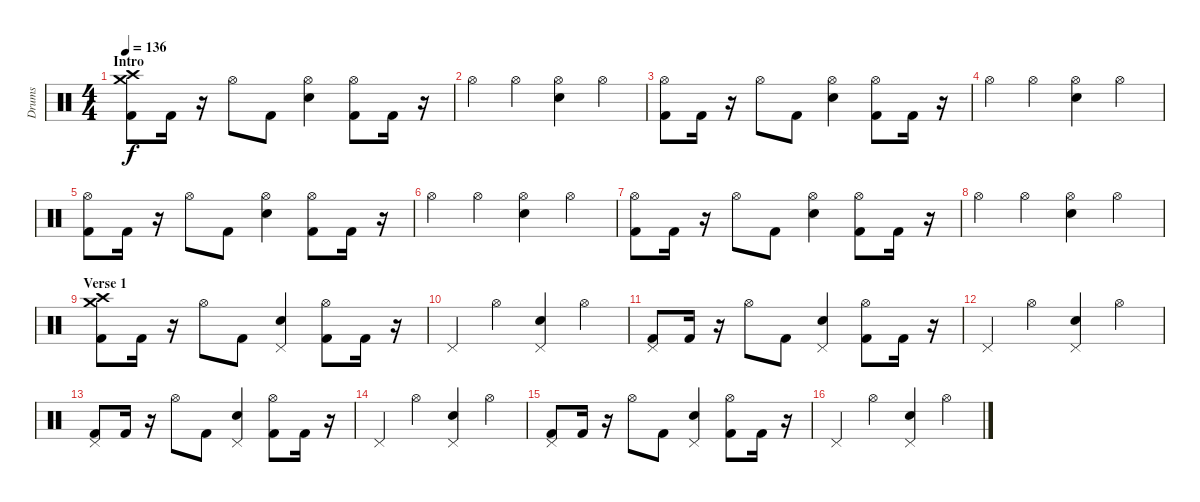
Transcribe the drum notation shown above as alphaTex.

\track ("Drums" "Drums") {instrument percussion}
\staff {score}
\articulation defaults
\ts (4 4)
\section ("" "Intro")
\tempo 136
\clef neutral
\ks c
("Crash high (hit)" "Crash medium (hit)" "Kick (hit) 2").8{dy f} "Kick (hit) 2".16 r.16 "Hi-Hat (open)".8 "Kick (hit) 2".8 ("Hi-Hat (open)" "Electric Snare (hit)").4 ("Hi-Hat (open)" "Kick (hit) 2").8 "Kick (hit) 2".16 r.16 |
"Hi-Hat (open)".4 "Hi-Hat (open)".4 ("Hi-Hat (open)" "Electric Snare (hit)").4 "Hi-Hat (open)".4 |
("Hi-Hat (open)" "Kick (hit) 2").8 "Kick (hit) 2".16 r.16 "Hi-Hat (open)".8 "Kick (hit) 2".8 ("Hi-Hat (open)" "Electric Snare (hit)").4 ("Hi-Hat (open)" "Kick (hit) 2").8 "Kick (hit) 2".16 r.16 |
"Hi-Hat (open)".4 "Hi-Hat (open)".4 ("Hi-Hat (open)" "Electric Snare (hit)").4 "Hi-Hat (open)".4 |
("Hi-Hat (open)" "Kick (hit) 2").8 "Kick (hit) 2".16 r.16 "Hi-Hat (open)".8 "Kick (hit) 2".8 ("Hi-Hat (open)" "Electric Snare (hit)").4 ("Hi-Hat (open)" "Kick (hit) 2").8 "Kick (hit) 2".16 r.16 |
"Hi-Hat (open)".4 "Hi-Hat (open)".4 ("Hi-Hat (open)" "Electric Snare (hit)").4 "Hi-Hat (open)".4 |
("Hi-Hat (open)" "Kick (hit) 2").8 "Kick (hit) 2".16 r.16 "Hi-Hat (open)".8 "Kick (hit) 2".8 ("Hi-Hat (open)" "Electric Snare (hit)").4 ("Hi-Hat (open)" "Kick (hit) 2").8 "Kick (hit) 2".16 r.16 |
"Hi-Hat (open)".4 "Hi-Hat (open)".4 ("Hi-Hat (open)" "Electric Snare (hit)").4 "Hi-Hat (open)".4 |
\section ("" "Verse 1")
("Crash high (hit)" "Crash medium (hit)" "Kick (hit) 2").8 "Kick (hit) 2".16 r.16 "Hi-Hat (open)".8 "Kick (hit) 2".8 ("Pedal Hi-Hat (hit)" "Electric Snare (hit)").4 ("Hi-Hat (open)" "Kick (hit) 2").8 "Kick (hit) 2".16 r.16 |
"Pedal Hi-Hat (hit)".4 "Hi-Hat (open)".4 ("Pedal Hi-Hat (hit)" "Electric Snare (hit)").4 "Hi-Hat (open)".4 |
("Pedal Hi-Hat (hit)" "Kick (hit) 2").8 "Kick (hit) 2".16 r.16 "Hi-Hat (open)".8 "Kick (hit) 2".8 ("Pedal Hi-Hat (hit)" "Electric Snare (hit)").4 ("Hi-Hat (open)" "Kick (hit) 2").8 "Kick (hit) 2".16 r.16 |
"Pedal Hi-Hat (hit)".4 "Hi-Hat (open)".4 ("Pedal Hi-Hat (hit)" "Electric Snare (hit)").4 "Hi-Hat (open)".4 |
("Pedal Hi-Hat (hit)" "Kick (hit) 2").8 "Kick (hit) 2".16 r.16 "Hi-Hat (open)".8 "Kick (hit) 2".8 ("Pedal Hi-Hat (hit)" "Electric Snare (hit)").4 ("Hi-Hat (open)" "Kick (hit) 2").8 "Kick (hit) 2".16 r.16 |
"Pedal Hi-Hat (hit)".4 "Hi-Hat (open)".4 ("Pedal Hi-Hat (hit)" "Electric Snare (hit)").4 "Hi-Hat (open)".4 |
("Pedal Hi-Hat (hit)" "Kick (hit) 2").8 "Kick (hit) 2".16 r.16 "Hi-Hat (open)".8 "Kick (hit) 2".8 ("Pedal Hi-Hat (hit)" "Electric Snare (hit)").4 ("Hi-Hat (open)" "Kick (hit) 2").8 "Kick (hit) 2".16 r.16 |
"Pedal Hi-Hat (hit)".4 "Hi-Hat (open)".4 ("Pedal Hi-Hat (hit)" "Electric Snare (hit)").4 "Hi-Hat (open)".4
